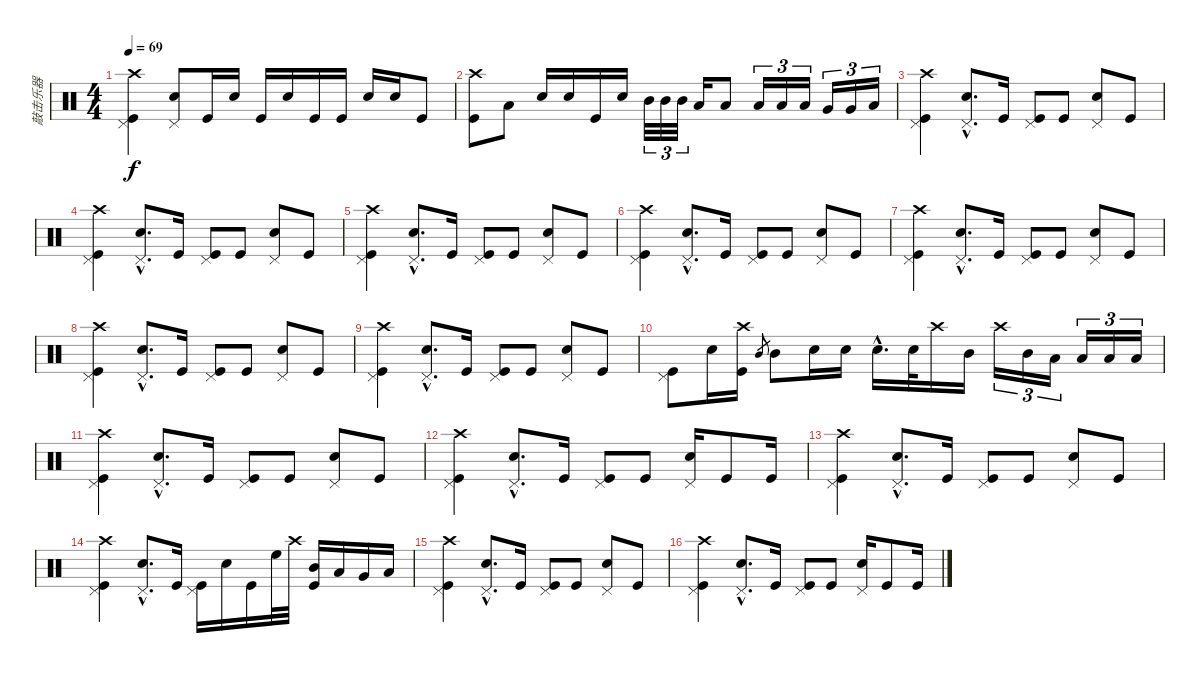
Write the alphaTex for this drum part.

\track ("敲击乐器" "敲击乐器") {instrument percussion}
\staff {score}
\articulation defaults
\ts (4 4)
\tempo 69
\clef neutral
\ks c
("Crash high (hit)" "Pedal Hi-Hat (hit)" "Kick (hit)").4{dy f} ("Pedal Hi-Hat (hit)" "Metronome (bell)").8 "Kick (hit)".16 "Metronome (bell)".16 "Kick (hit)".16 "Metronome (bell)".16 "Kick (hit)".16 "Kick (hit)".16 "Metronome (bell)".16 "Metronome (bell)".16 "Kick (hit)".8 |
("Crash high (hit)" "Kick (hit)").8 "Low Tom (hit)".8 "Metronome (bell)".16 "Metronome (bell)".16 "Kick (hit)".16 "Metronome (bell)".16 "Mid Tom (hit)".32{tu (3 2)} "Mid Tom (hit)".32{tu (3 2)} "Mid Tom (hit)".32{tu (3 2)} "Low Tom (hit)".16 "Low Tom (hit)".8 "Low Tom (hit)".16{tu (3 2)} "Low Tom (hit)".16{tu (3 2)} "Low Tom (hit)".16{tu (3 2)} "Very Low Tom (hit)".16{tu (3 2)} "Very Low Tom (hit)".16{tu (3 2)} "Low Floor Tom (hit)".16{tu (3 2)} |
("Crash high (hit)" "Pedal Hi-Hat (hit)" "Kick (hit)").4 ("Pedal Hi-Hat (hit)"{hac} "Metronome (bell)"{hac}).8{d} "Kick (hit)".16 ("Pedal Hi-Hat (hit)" "Kick (hit)").8 "Kick (hit)".8 ("Pedal Hi-Hat (hit)" "Metronome (bell)").8 "Kick (hit)".8 |
("Crash high (hit)" "Pedal Hi-Hat (hit)" "Kick (hit)").4 ("Pedal Hi-Hat (hit)"{hac} "Metronome (bell)"{hac}).8{d} "Kick (hit)".16 ("Pedal Hi-Hat (hit)" "Kick (hit)").8 "Kick (hit)".8 ("Pedal Hi-Hat (hit)" "Metronome (bell)").8 "Kick (hit)".8 |
("Crash high (hit)" "Pedal Hi-Hat (hit)" "Kick (hit)").4 ("Pedal Hi-Hat (hit)"{hac} "Metronome (bell)"{hac}).8{d} "Kick (hit)".16 ("Pedal Hi-Hat (hit)" "Kick (hit)").8 "Kick (hit)".8 ("Pedal Hi-Hat (hit)" "Metronome (bell)").8 "Kick (hit)".8 |
("Crash high (hit)" "Pedal Hi-Hat (hit)" "Kick (hit)").4 ("Pedal Hi-Hat (hit)"{hac} "Metronome (bell)"{hac}).8{d} "Kick (hit)".16 ("Pedal Hi-Hat (hit)" "Kick (hit)").8 "Kick (hit)".8 ("Pedal Hi-Hat (hit)" "Metronome (bell)").8 "Kick (hit)".8 |
("Crash high (hit)" "Pedal Hi-Hat (hit)" "Kick (hit)").4 ("Pedal Hi-Hat (hit)"{hac} "Metronome (bell)"{hac}).8{d} "Kick (hit)".16 ("Pedal Hi-Hat (hit)" "Kick (hit)").8 "Kick (hit)".8 ("Pedal Hi-Hat (hit)" "Metronome (bell)").8 "Kick (hit)".8 |
("Crash high (hit)" "Pedal Hi-Hat (hit)" "Kick (hit)").4 ("Pedal Hi-Hat (hit)"{hac} "Metronome (bell)"{hac}).8{d} "Kick (hit)".16 ("Pedal Hi-Hat (hit)" "Kick (hit)").8 "Kick (hit)".8 ("Pedal Hi-Hat (hit)" "Metronome (bell)").8 "Kick (hit)".8 |
("Crash high (hit)" "Pedal Hi-Hat (hit)" "Kick (hit)").4 ("Pedal Hi-Hat (hit)"{hac} "Metronome (bell)"{hac}).8{d} "Kick (hit)".16 ("Pedal Hi-Hat (hit)" "Kick (hit)").8 "Kick (hit)".8 ("Pedal Hi-Hat (hit)" "Metronome (bell)").8 "Kick (hit)".8 |
("Pedal Hi-Hat (hit)" "Kick (hit)").8 "Metronome (bell)".16 ("Crash high (hit)" "Kick (hit)").16 "Mid Tom (hit)".8{gr} "Mid Tom (hit)".8 "Metronome (bell)".16 "Metronome (bell)".16 "Metronome (bell)"{hac}.16{d} "Metronome (bell)".32 "Crash high (hit)".16 "Mid Tom (hit)".16 "Crash high (hit)".16{tu (3 2)} "Mid Tom (hit)".16{tu (3 2)} "Low Tom (hit)".16{tu (3 2)} "Low Tom (hit)".16{tu (3 2)} "Low Tom (hit)".16{tu (3 2)} "Low Floor Tom (hit)".16{tu (3 2)} |
("Crash high (hit)" "Pedal Hi-Hat (hit)" "Kick (hit)").4 ("Pedal Hi-Hat (hit)"{hac} "Metronome (bell)"{hac}).8{d} "Kick (hit)".16 ("Pedal Hi-Hat (hit)" "Kick (hit)").8 "Kick (hit)".8 ("Pedal Hi-Hat (hit)" "Metronome (bell)").8 "Kick (hit)".8 |
("Crash high (hit)" "Pedal Hi-Hat (hit)" "Kick (hit)").4 ("Pedal Hi-Hat (hit)"{hac} "Metronome (bell)"{hac}).8{d} "Kick (hit)".16 ("Pedal Hi-Hat (hit)" "Kick (hit)").8 "Kick (hit)".8 ("Pedal Hi-Hat (hit)" "Metronome (bell)").16 "Kick (hit)".8 "Kick (hit)".16 |
("Crash high (hit)" "Pedal Hi-Hat (hit)" "Kick (hit)").4 ("Pedal Hi-Hat (hit)"{hac} "Metronome (bell)"{hac}).8{d} "Kick (hit)".16 ("Pedal Hi-Hat (hit)" "Kick (hit)").8 "Kick (hit)".8 ("Pedal Hi-Hat (hit)" "Metronome (bell)").8 "Kick (hit)".8 |
("Crash high (hit)" "Pedal Hi-Hat (hit)" "Kick (hit)").4 ("Pedal Hi-Hat (hit)"{hac} "Metronome (bell)"{hac}).8{d} "Kick (hit)".16 ("Pedal Hi-Hat (hit)" "Kick (hit)").16 "Metronome (bell)".16 "Kick (hit)".16 "High Floor Tom (hit)".32 "Crash high (hit)".32 ("Mid Tom (hit)" "Kick (hit)").16 "Low Tom (hit)".16 "Very Low Tom (hit)".16 "Low Floor Tom (hit)".16 |
("Crash high (hit)" "Pedal Hi-Hat (hit)" "Kick (hit)").4 ("Pedal Hi-Hat (hit)"{hac} "Metronome (bell)"{hac}).8{d} "Kick (hit)".16 ("Pedal Hi-Hat (hit)" "Kick (hit)").8 "Kick (hit)".8 ("Pedal Hi-Hat (hit)" "Metronome (bell)").8 "Kick (hit)".8 |
("Crash high (hit)" "Pedal Hi-Hat (hit)" "Kick (hit)").4 ("Pedal Hi-Hat (hit)"{hac} "Metronome (bell)"{hac}).8{d} "Kick (hit)".16 ("Pedal Hi-Hat (hit)" "Kick (hit)").8 "Kick (hit)".8 ("Pedal Hi-Hat (hit)" "Metronome (bell)").16 "Kick (hit)".8 "Kick (hit)".16
